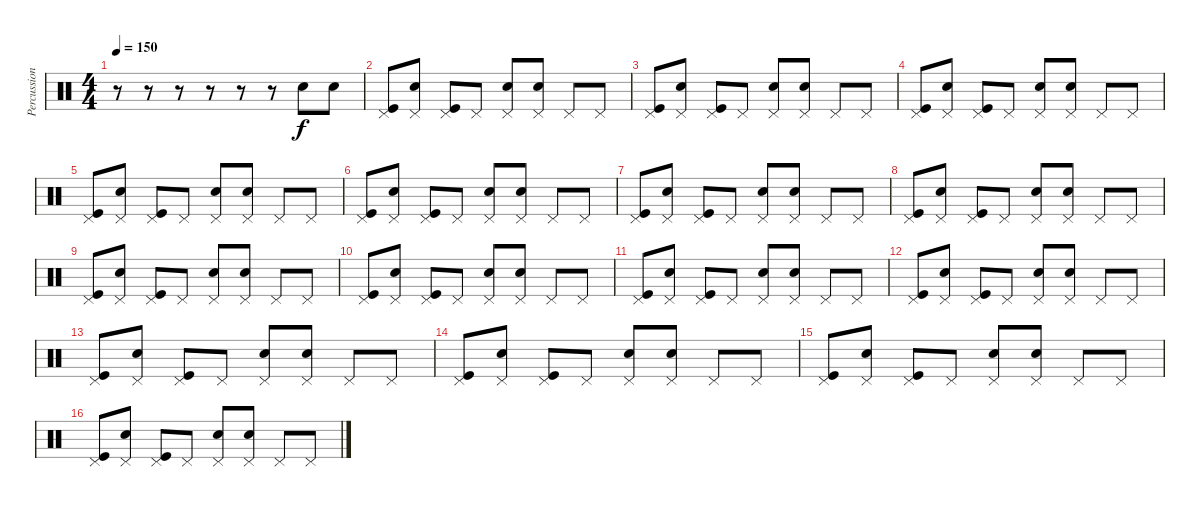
\track ("Percussion" "Percussion") {instrument percussion}
\staff {score}
\articulation defaults
\ts (4 4)
\tempo 150
\clef neutral
\ks c
r.8{dy f} r.8 r.8 r.8 r.8 r.8 "Electric Snare (hit)".8 "Electric Snare (hit)".8 |
("Kick (hit)" "Pedal Hi-Hat (hit)").8 ("Electric Snare (hit)" "Pedal Hi-Hat (hit)").8 ("Kick (hit)" "Pedal Hi-Hat (hit)").8 "Pedal Hi-Hat (hit)".8 ("Electric Snare (hit)" "Pedal Hi-Hat (hit)").8 ("Electric Snare (hit)" "Pedal Hi-Hat (hit)").8 "Pedal Hi-Hat (hit)".8 "Pedal Hi-Hat (hit)".8 |
("Kick (hit)" "Pedal Hi-Hat (hit)").8 ("Electric Snare (hit)" "Pedal Hi-Hat (hit)").8 ("Kick (hit)" "Pedal Hi-Hat (hit)").8 "Pedal Hi-Hat (hit)".8 ("Electric Snare (hit)" "Pedal Hi-Hat (hit)").8 ("Electric Snare (hit)" "Pedal Hi-Hat (hit)").8 "Pedal Hi-Hat (hit)".8 "Pedal Hi-Hat (hit)".8 |
("Kick (hit)" "Pedal Hi-Hat (hit)").8 ("Electric Snare (hit)" "Pedal Hi-Hat (hit)").8 ("Kick (hit)" "Pedal Hi-Hat (hit)").8 "Pedal Hi-Hat (hit)".8 ("Electric Snare (hit)" "Pedal Hi-Hat (hit)").8 ("Electric Snare (hit)" "Pedal Hi-Hat (hit)").8 "Pedal Hi-Hat (hit)".8 "Pedal Hi-Hat (hit)".8 |
("Kick (hit)" "Pedal Hi-Hat (hit)").8 ("Electric Snare (hit)" "Pedal Hi-Hat (hit)").8 ("Kick (hit)" "Pedal Hi-Hat (hit)").8 "Pedal Hi-Hat (hit)".8 ("Electric Snare (hit)" "Pedal Hi-Hat (hit)").8 ("Electric Snare (hit)" "Pedal Hi-Hat (hit)").8 "Pedal Hi-Hat (hit)".8 "Pedal Hi-Hat (hit)".8 |
("Kick (hit)" "Pedal Hi-Hat (hit)").8 ("Electric Snare (hit)" "Pedal Hi-Hat (hit)").8 ("Kick (hit)" "Pedal Hi-Hat (hit)").8 "Pedal Hi-Hat (hit)".8 ("Electric Snare (hit)" "Pedal Hi-Hat (hit)").8 ("Electric Snare (hit)" "Pedal Hi-Hat (hit)").8 "Pedal Hi-Hat (hit)".8 "Pedal Hi-Hat (hit)".8 |
("Kick (hit)" "Pedal Hi-Hat (hit)").8 ("Electric Snare (hit)" "Pedal Hi-Hat (hit)").8 ("Kick (hit)" "Pedal Hi-Hat (hit)").8 "Pedal Hi-Hat (hit)".8 ("Electric Snare (hit)" "Pedal Hi-Hat (hit)").8 ("Electric Snare (hit)" "Pedal Hi-Hat (hit)").8 "Pedal Hi-Hat (hit)".8 "Pedal Hi-Hat (hit)".8 |
("Kick (hit)" "Pedal Hi-Hat (hit)").8 ("Electric Snare (hit)" "Pedal Hi-Hat (hit)").8 ("Kick (hit)" "Pedal Hi-Hat (hit)").8 "Pedal Hi-Hat (hit)".8 ("Electric Snare (hit)" "Pedal Hi-Hat (hit)").8 ("Electric Snare (hit)" "Pedal Hi-Hat (hit)").8 "Pedal Hi-Hat (hit)".8 "Pedal Hi-Hat (hit)".8 |
("Kick (hit)" "Pedal Hi-Hat (hit)").8 ("Electric Snare (hit)" "Pedal Hi-Hat (hit)").8 ("Kick (hit)" "Pedal Hi-Hat (hit)").8 "Pedal Hi-Hat (hit)".8 ("Electric Snare (hit)" "Pedal Hi-Hat (hit)").8 ("Electric Snare (hit)" "Pedal Hi-Hat (hit)").8 "Pedal Hi-Hat (hit)".8 "Pedal Hi-Hat (hit)".8 |
("Kick (hit)" "Pedal Hi-Hat (hit)").8 ("Electric Snare (hit)" "Pedal Hi-Hat (hit)").8 ("Kick (hit)" "Pedal Hi-Hat (hit)").8 "Pedal Hi-Hat (hit)".8 ("Electric Snare (hit)" "Pedal Hi-Hat (hit)").8 ("Electric Snare (hit)" "Pedal Hi-Hat (hit)").8 "Pedal Hi-Hat (hit)".8 "Pedal Hi-Hat (hit)".8 |
("Kick (hit)" "Pedal Hi-Hat (hit)").8 ("Electric Snare (hit)" "Pedal Hi-Hat (hit)").8 ("Kick (hit)" "Pedal Hi-Hat (hit)").8 "Pedal Hi-Hat (hit)".8 ("Electric Snare (hit)" "Pedal Hi-Hat (hit)").8 ("Electric Snare (hit)" "Pedal Hi-Hat (hit)").8 "Pedal Hi-Hat (hit)".8 "Pedal Hi-Hat (hit)".8 |
("Kick (hit)" "Pedal Hi-Hat (hit)").8 ("Electric Snare (hit)" "Pedal Hi-Hat (hit)").8 ("Kick (hit)" "Pedal Hi-Hat (hit)").8 "Pedal Hi-Hat (hit)".8 ("Electric Snare (hit)" "Pedal Hi-Hat (hit)").8 ("Electric Snare (hit)" "Pedal Hi-Hat (hit)").8 "Pedal Hi-Hat (hit)".8 "Pedal Hi-Hat (hit)".8 |
("Kick (hit)" "Pedal Hi-Hat (hit)").8 ("Electric Snare (hit)" "Pedal Hi-Hat (hit)").8 ("Kick (hit)" "Pedal Hi-Hat (hit)").8 "Pedal Hi-Hat (hit)".8 ("Electric Snare (hit)" "Pedal Hi-Hat (hit)").8 ("Electric Snare (hit)" "Pedal Hi-Hat (hit)").8 "Pedal Hi-Hat (hit)".8 "Pedal Hi-Hat (hit)".8 |
("Kick (hit)" "Pedal Hi-Hat (hit)").8 ("Electric Snare (hit)" "Pedal Hi-Hat (hit)").8 ("Kick (hit)" "Pedal Hi-Hat (hit)").8 "Pedal Hi-Hat (hit)".8 ("Electric Snare (hit)" "Pedal Hi-Hat (hit)").8 ("Electric Snare (hit)" "Pedal Hi-Hat (hit)").8 "Pedal Hi-Hat (hit)".8 "Pedal Hi-Hat (hit)".8 |
("Kick (hit)" "Pedal Hi-Hat (hit)").8 ("Electric Snare (hit)" "Pedal Hi-Hat (hit)").8 ("Kick (hit)" "Pedal Hi-Hat (hit)").8 "Pedal Hi-Hat (hit)".8 ("Electric Snare (hit)" "Pedal Hi-Hat (hit)").8 ("Electric Snare (hit)" "Pedal Hi-Hat (hit)").8 "Pedal Hi-Hat (hit)".8 "Pedal Hi-Hat (hit)".8 |
("Kick (hit)" "Pedal Hi-Hat (hit)").8 ("Electric Snare (hit)" "Pedal Hi-Hat (hit)").8 ("Kick (hit)" "Pedal Hi-Hat (hit)").8 "Pedal Hi-Hat (hit)".8 ("Electric Snare (hit)" "Pedal Hi-Hat (hit)").8 ("Electric Snare (hit)" "Pedal Hi-Hat (hit)").8 "Pedal Hi-Hat (hit)".8 "Pedal Hi-Hat (hit)".8
